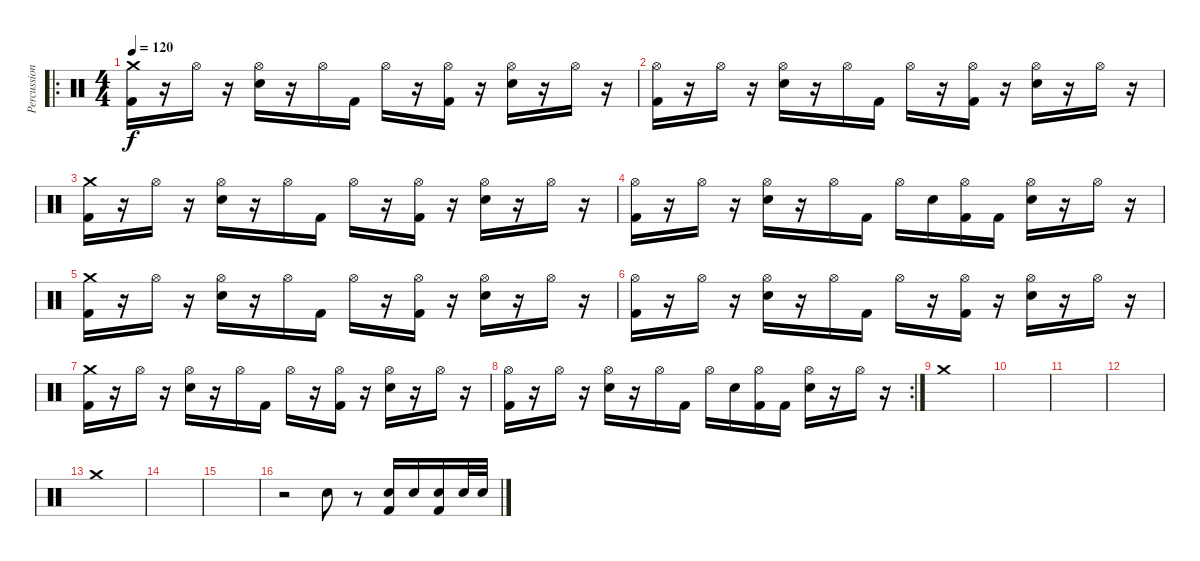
\track ("Percussion" "Percussion") {instrument percussion}
\staff {score}
\articulation defaults
\ro
\ts (4 4)
\tempo 120
\clef neutral
\ks c
("Kick (hit) 2" "Crash medium (hit)").16{dy f} r.16 "Hi-Hat (open)".16 r.16 ("Electric Snare (hit)" "Hi-Hat (open)").16 r.16 "Hi-Hat (open)".16 "Kick (hit) 2".16 "Hi-Hat (open)".16 r.16 ("Hi-Hat (open)" "Kick (hit) 2").16 r.16 ("Hi-Hat (open)" "Electric Snare (hit)").16 r.16 "Hi-Hat (open)".16 r.16 |
("Hi-Hat (open)" "Kick (hit) 2").16 r.16 "Hi-Hat (open)".16 r.16 ("Hi-Hat (open)" "Electric Snare (hit)").16 r.16 "Hi-Hat (open)".16 "Kick (hit) 2".16 "Hi-Hat (open)".16 r.16 ("Hi-Hat (open)" "Kick (hit) 2").16 r.16 ("Hi-Hat (open)" "Electric Snare (hit)").16 r.16 "Hi-Hat (open)".16 r.16 |
("Kick (hit) 2" "Crash medium (hit)").16 r.16 "Hi-Hat (open)".16 r.16 ("Electric Snare (hit)" "Hi-Hat (open)").16 r.16 "Hi-Hat (open)".16 "Kick (hit) 2".16 "Hi-Hat (open)".16 r.16 ("Hi-Hat (open)" "Kick (hit) 2").16 r.16 ("Hi-Hat (open)" "Electric Snare (hit)").16 r.16 "Hi-Hat (open)".16 r.16 |
("Hi-Hat (open)" "Kick (hit) 2").16 r.16 "Hi-Hat (open)".16 r.16 ("Hi-Hat (open)" "Electric Snare (hit)").16 r.16 "Hi-Hat (open)".16 "Kick (hit) 2".16 "Hi-Hat (open)".16 "Electric Snare (hit)".16 ("Hi-Hat (open)" "Kick (hit) 2").16 "Kick (hit) 2".16 ("Hi-Hat (open)" "Electric Snare (hit)").16 r.16 "Hi-Hat (open)".16 r.16 |
("Kick (hit) 2" "Crash medium (hit)").16 r.16 "Hi-Hat (open)".16 r.16 ("Electric Snare (hit)" "Hi-Hat (open)").16 r.16 "Hi-Hat (open)".16 "Kick (hit) 2".16 "Hi-Hat (open)".16 r.16 ("Hi-Hat (open)" "Kick (hit) 2").16 r.16 ("Hi-Hat (open)" "Electric Snare (hit)").16 r.16 "Hi-Hat (open)".16 r.16 |
("Hi-Hat (open)" "Kick (hit) 2").16 r.16 "Hi-Hat (open)".16 r.16 ("Hi-Hat (open)" "Electric Snare (hit)").16 r.16 "Hi-Hat (open)".16 "Kick (hit) 2".16 "Hi-Hat (open)".16 r.16 ("Hi-Hat (open)" "Kick (hit) 2").16 r.16 ("Hi-Hat (open)" "Electric Snare (hit)").16 r.16 "Hi-Hat (open)".16 r.16 |
("Kick (hit) 2" "Crash medium (hit)").16 r.16 "Hi-Hat (open)".16 r.16 ("Electric Snare (hit)" "Hi-Hat (open)").16 r.16 "Hi-Hat (open)".16 "Kick (hit) 2".16 "Hi-Hat (open)".16 r.16 ("Hi-Hat (open)" "Kick (hit) 2").16 r.16 ("Hi-Hat (open)" "Electric Snare (hit)").16 r.16 "Hi-Hat (open)".16 r.16 |
\rc 2
("Hi-Hat (open)" "Kick (hit) 2").16 r.16 "Hi-Hat (open)".16 r.16 ("Hi-Hat (open)" "Electric Snare (hit)").16 r.16 "Hi-Hat (open)".16 "Kick (hit) 2".16 "Hi-Hat (open)".16 "Electric Snare (hit)".16 ("Hi-Hat (open)" "Kick (hit) 2").16 "Kick (hit) 2".16 ("Hi-Hat (open)" "Electric Snare (hit)").16 r.16 "Hi-Hat (open)".16 r.16 |
"Crash medium (hit)".1 |
|
|
|
"Crash medium (hit)".1 |
|
|
r.2 "Electric Snare (hit)".8 r.8 ("Electric Snare (hit)" "Kick (hit) 2").16 "Electric Snare (hit)".16 ("Electric Snare (hit)" "Kick (hit) 2").16 "Electric Snare (hit)".32 "Electric Snare (hit)".32
